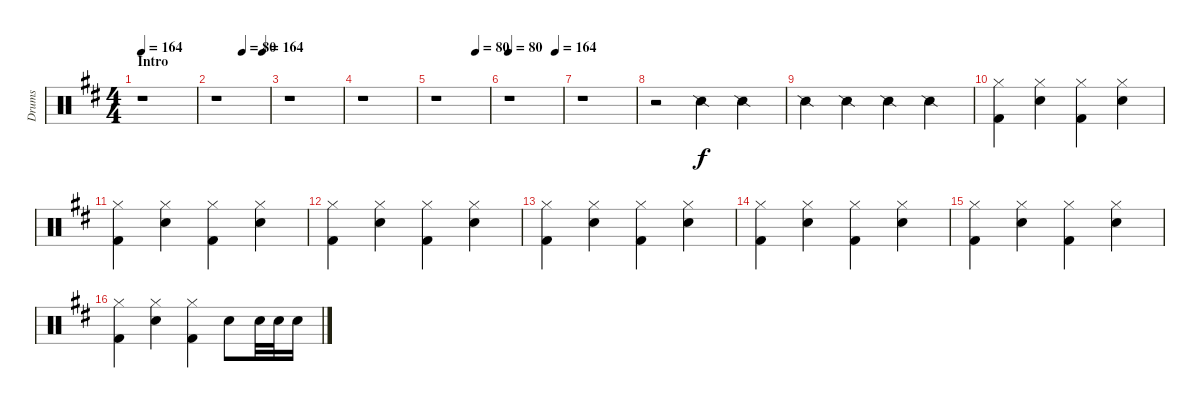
\track ("Drums" "Drums") {instrument percussion}
\staff {score}
\articulation defaults
\ts (4 4)
\section ("" "Intro")
\tempo 164
\clef neutral
\ks d
r.1{dy f} |
\tempo (80 0.5)
\tempo (164 0.875)
r.1 |
r.1 |
r.1 |
\tempo (80 0.75)
r.1 |
\tempo 80
\tempo (164 0.875)
r.1 |
r.1 |
r.2 "Snare (side stick) 2".4 "Snare (side stick) 2".4 |
"Snare (side stick) 2".4 "Snare (side stick) 2".4 "Snare (side stick) 2".4 "Snare (side stick) 2".4 |
("Hi-Hat (closed)" "Kick (hit) 2").4 ("Hi-Hat (closed)" "Snare (hit) 2").4 ("Hi-Hat (closed)" "Kick (hit) 2").4 ("Hi-Hat (closed)" "Snare (hit) 2").4 |
("Hi-Hat (closed)" "Kick (hit) 2").4 ("Hi-Hat (closed)" "Snare (hit) 2").4 ("Hi-Hat (closed)" "Kick (hit) 2").4 ("Hi-Hat (closed)" "Snare (hit) 2").4 |
("Hi-Hat (closed)" "Kick (hit) 2").4 ("Hi-Hat (closed)" "Snare (hit) 2").4 ("Hi-Hat (closed)" "Kick (hit) 2").4 ("Hi-Hat (closed)" "Snare (hit) 2").4 |
("Hi-Hat (closed)" "Kick (hit) 2").4 ("Hi-Hat (closed)" "Snare (hit) 2").4 ("Hi-Hat (closed)" "Kick (hit) 2").4 ("Hi-Hat (closed)" "Snare (hit) 2").4 |
("Hi-Hat (closed)" "Kick (hit) 2").4 ("Hi-Hat (closed)" "Snare (hit) 2").4 ("Hi-Hat (closed)" "Kick (hit) 2").4 ("Hi-Hat (closed)" "Snare (hit) 2").4 |
("Hi-Hat (closed)" "Kick (hit) 2").4 ("Hi-Hat (closed)" "Snare (hit) 2").4 ("Hi-Hat (closed)" "Kick (hit) 2").4 ("Hi-Hat (closed)" "Snare (hit) 2").4 |
("Hi-Hat (closed)" "Kick (hit) 2").4 ("Hi-Hat (closed)" "Snare (hit) 2").4 ("Hi-Hat (closed)" "Kick (hit) 2").4 "Snare (hit) 2".8 "Snare (hit) 2".32 "Snare (hit) 2".32 "Snare (hit) 2".16
